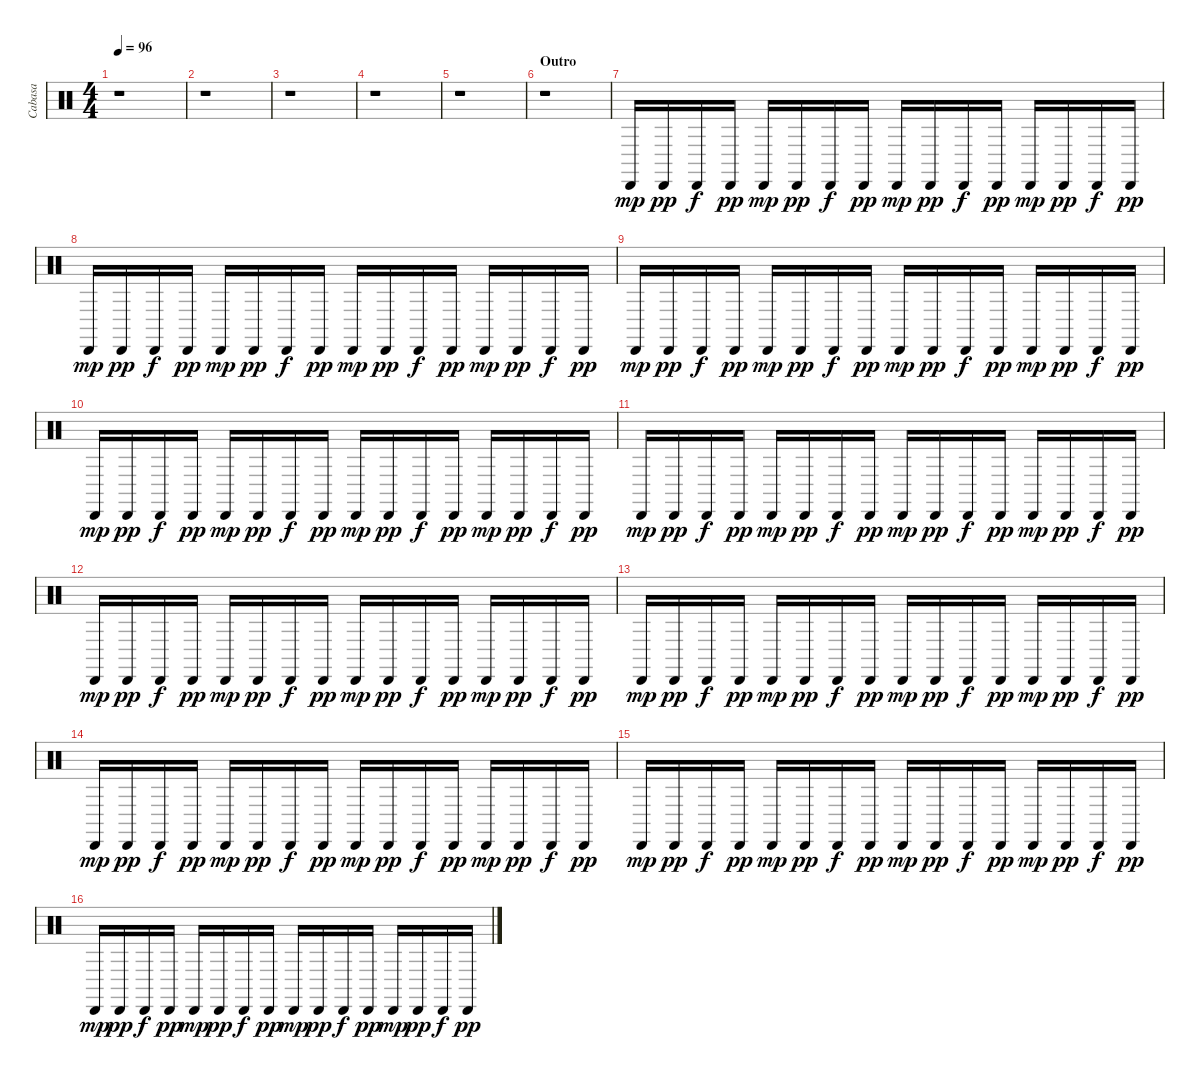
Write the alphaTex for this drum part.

\track ("Cabasa" "Cabasa") {instrument percussion}
\staff {score}
\articulation defaults
\ts (4 4)
\tempo 96
\clef neutral
\ks c
r.1{dy pp} |
r.1 |
r.1 |
r.1 |
r.1 |
\section ("" "Outro")
r.1 |
"Cabasa (hit)".16{dy mp} "Cabasa (hit)".16{dy pp} "Cabasa (hit)".16{dy f} "Cabasa (hit)".16{dy pp} "Cabasa (hit)".16{dy mp} "Cabasa (hit)".16{dy pp} "Cabasa (hit)".16{dy f} "Cabasa (hit)".16{dy pp} "Cabasa (hit)".16{dy mp} "Cabasa (hit)".16{dy pp} "Cabasa (hit)".16{dy f} "Cabasa (hit)".16{dy pp} "Cabasa (hit)".16{dy mp} "Cabasa (hit)".16{dy pp} "Cabasa (hit)".16{dy f} "Cabasa (hit)".16{dy pp} |
"Cabasa (hit)".16{dy mp} "Cabasa (hit)".16{dy pp} "Cabasa (hit)".16{dy f} "Cabasa (hit)".16{dy pp} "Cabasa (hit)".16{dy mp} "Cabasa (hit)".16{dy pp} "Cabasa (hit)".16{dy f} "Cabasa (hit)".16{dy pp} "Cabasa (hit)".16{dy mp} "Cabasa (hit)".16{dy pp} "Cabasa (hit)".16{dy f} "Cabasa (hit)".16{dy pp} "Cabasa (hit)".16{dy mp} "Cabasa (hit)".16{dy pp} "Cabasa (hit)".16{dy f} "Cabasa (hit)".16{dy pp} |
"Cabasa (hit)".16{dy mp} "Cabasa (hit)".16{dy pp} "Cabasa (hit)".16{dy f} "Cabasa (hit)".16{dy pp} "Cabasa (hit)".16{dy mp} "Cabasa (hit)".16{dy pp} "Cabasa (hit)".16{dy f} "Cabasa (hit)".16{dy pp} "Cabasa (hit)".16{dy mp} "Cabasa (hit)".16{dy pp} "Cabasa (hit)".16{dy f} "Cabasa (hit)".16{dy pp} "Cabasa (hit)".16{dy mp} "Cabasa (hit)".16{dy pp} "Cabasa (hit)".16{dy f} "Cabasa (hit)".16{dy pp} |
"Cabasa (hit)".16{dy mp} "Cabasa (hit)".16{dy pp} "Cabasa (hit)".16{dy f} "Cabasa (hit)".16{dy pp} "Cabasa (hit)".16{dy mp} "Cabasa (hit)".16{dy pp} "Cabasa (hit)".16{dy f} "Cabasa (hit)".16{dy pp} "Cabasa (hit)".16{dy mp} "Cabasa (hit)".16{dy pp} "Cabasa (hit)".16{dy f} "Cabasa (hit)".16{dy pp} "Cabasa (hit)".16{dy mp} "Cabasa (hit)".16{dy pp} "Cabasa (hit)".16{dy f} "Cabasa (hit)".16{dy pp} |
"Cabasa (hit)".16{dy mp} "Cabasa (hit)".16{dy pp} "Cabasa (hit)".16{dy f} "Cabasa (hit)".16{dy pp} "Cabasa (hit)".16{dy mp} "Cabasa (hit)".16{dy pp} "Cabasa (hit)".16{dy f} "Cabasa (hit)".16{dy pp} "Cabasa (hit)".16{dy mp} "Cabasa (hit)".16{dy pp} "Cabasa (hit)".16{dy f} "Cabasa (hit)".16{dy pp} "Cabasa (hit)".16{dy mp} "Cabasa (hit)".16{dy pp} "Cabasa (hit)".16{dy f} "Cabasa (hit)".16{dy pp} |
"Cabasa (hit)".16{dy mp} "Cabasa (hit)".16{dy pp} "Cabasa (hit)".16{dy f} "Cabasa (hit)".16{dy pp} "Cabasa (hit)".16{dy mp} "Cabasa (hit)".16{dy pp} "Cabasa (hit)".16{dy f} "Cabasa (hit)".16{dy pp} "Cabasa (hit)".16{dy mp} "Cabasa (hit)".16{dy pp} "Cabasa (hit)".16{dy f} "Cabasa (hit)".16{dy pp} "Cabasa (hit)".16{dy mp} "Cabasa (hit)".16{dy pp} "Cabasa (hit)".16{dy f} "Cabasa (hit)".16{dy pp} |
"Cabasa (hit)".16{dy mp} "Cabasa (hit)".16{dy pp} "Cabasa (hit)".16{dy f} "Cabasa (hit)".16{dy pp} "Cabasa (hit)".16{dy mp} "Cabasa (hit)".16{dy pp} "Cabasa (hit)".16{dy f} "Cabasa (hit)".16{dy pp} "Cabasa (hit)".16{dy mp} "Cabasa (hit)".16{dy pp} "Cabasa (hit)".16{dy f} "Cabasa (hit)".16{dy pp} "Cabasa (hit)".16{dy mp} "Cabasa (hit)".16{dy pp} "Cabasa (hit)".16{dy f} "Cabasa (hit)".16{dy pp} |
"Cabasa (hit)".16{dy mp} "Cabasa (hit)".16{dy pp} "Cabasa (hit)".16{dy f} "Cabasa (hit)".16{dy pp} "Cabasa (hit)".16{dy mp} "Cabasa (hit)".16{dy pp} "Cabasa (hit)".16{dy f} "Cabasa (hit)".16{dy pp} "Cabasa (hit)".16{dy mp} "Cabasa (hit)".16{dy pp} "Cabasa (hit)".16{dy f} "Cabasa (hit)".16{dy pp} "Cabasa (hit)".16{dy mp} "Cabasa (hit)".16{dy pp} "Cabasa (hit)".16{dy f} "Cabasa (hit)".16{dy pp} |
"Cabasa (hit)".16{dy mp} "Cabasa (hit)".16{dy pp} "Cabasa (hit)".16{dy f} "Cabasa (hit)".16{dy pp} "Cabasa (hit)".16{dy mp} "Cabasa (hit)".16{dy pp} "Cabasa (hit)".16{dy f} "Cabasa (hit)".16{dy pp} "Cabasa (hit)".16{dy mp} "Cabasa (hit)".16{dy pp} "Cabasa (hit)".16{dy f} "Cabasa (hit)".16{dy pp} "Cabasa (hit)".16{dy mp} "Cabasa (hit)".16{dy pp} "Cabasa (hit)".16{dy f} "Cabasa (hit)".16{dy pp} |
"Cabasa (hit)".16{dy mp} "Cabasa (hit)".16{dy pp} "Cabasa (hit)".16{dy f} "Cabasa (hit)".16{dy pp} "Cabasa (hit)".16{dy mp} "Cabasa (hit)".16{dy pp} "Cabasa (hit)".16{dy f} "Cabasa (hit)".16{dy pp} "Cabasa (hit)".16{dy mp} "Cabasa (hit)".16{dy pp} "Cabasa (hit)".16{dy f} "Cabasa (hit)".16{dy pp} "Cabasa (hit)".16{dy mp} "Cabasa (hit)".16{dy pp} "Cabasa (hit)".16{dy f} "Cabasa (hit)".16{dy pp}
